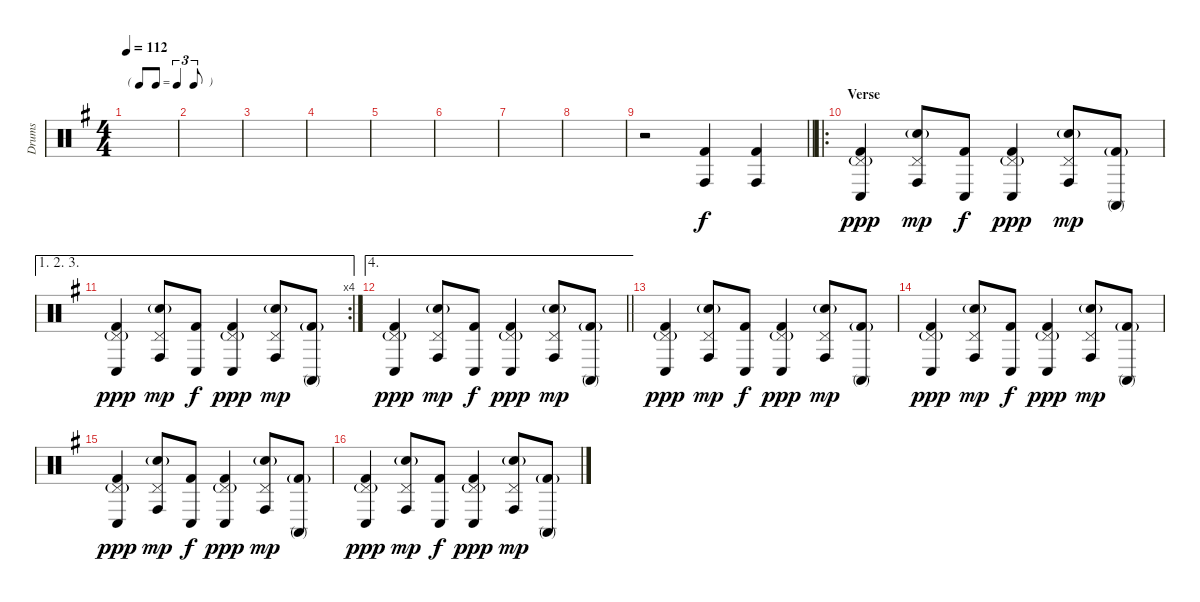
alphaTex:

\track ("Drums" "Drums") {instrument percussion}
\staff {score}
\articulation defaults
\ts (4 4)
\tf triplet8th
\tempo 112
\clef neutral
\ks g
|
|
|
|
|
|
|
|
\barLineRight lightlight
r.2 ("Conga high (hit)" "Kick (hit) 2").4 ("Conga high (hit)" "Kick (hit) 2").4 |
\ro
\section ("" "Verse")
("Pedal Hi-Hat (hit)"{g} "Conga low (hit)" "Kick (hit) 2").4{dy ppp} ("Pedal Hi-Hat (hit)" "Hand Clap (hit)"{g} "Conga high (hit)").8{dy mp} ("Conga low (hit)" "Kick (hit) 2").8{dy f} ("Pedal Hi-Hat (hit)"{g} "Conga low (hit)" "Kick (hit) 2").4{dy ppp} ("Pedal Hi-Hat (hit)" "Hand Clap (hit)"{g} "Conga high (hit)").8{dy mp} ("Conga high (mute)" "Kick (hit) 2"{g}).8 |
\ae (1 2 3)
\rc 4
("Pedal Hi-Hat (hit)"{g} "Conga low (hit)" "Kick (hit) 2").4{dy ppp} ("Pedal Hi-Hat (hit)" "Hand Clap (hit)"{g} "Conga high (hit)").8{dy mp} ("Conga low (hit)" "Kick (hit) 2").8{dy f} ("Pedal Hi-Hat (hit)"{g} "Conga low (hit)" "Kick (hit) 2").4{dy ppp} ("Pedal Hi-Hat (hit)" "Hand Clap (hit)"{g} "Conga high (hit)").8{dy mp} ("Conga high (mute)" "Kick (hit) 2"{g}).8 |
\ae 4
\barLineRight lightlight
("Pedal Hi-Hat (hit)"{g} "Conga low (hit)" "Kick (hit) 2").4{dy ppp} ("Pedal Hi-Hat (hit)" "Hand Clap (hit)"{g} "Conga high (hit)").8{dy mp} ("Conga low (hit)" "Kick (hit) 2").8{dy f} ("Pedal Hi-Hat (hit)"{g} "Conga low (hit)" "Kick (hit) 2").4{dy ppp} ("Pedal Hi-Hat (hit)" "Hand Clap (hit)"{g} "Conga high (hit)").8{dy mp} ("Conga high (mute)" "Kick (hit) 2"{g}).8 |
("Pedal Hi-Hat (hit)"{g} "Conga low (hit)" "Kick (hit) 2").4{dy ppp} ("Pedal Hi-Hat (hit)" "Hand Clap (hit)"{g} "Conga high (hit)").8{dy mp} ("Conga low (hit)" "Kick (hit) 2").8{dy f} ("Pedal Hi-Hat (hit)"{g} "Conga low (hit)" "Kick (hit) 2").4{dy ppp} ("Pedal Hi-Hat (hit)" "Hand Clap (hit)"{g} "Conga high (hit)").8{dy mp} ("Conga high (mute)" "Kick (hit) 2"{g}).8 |
("Pedal Hi-Hat (hit)"{g} "Conga low (hit)" "Kick (hit) 2").4{dy ppp} ("Pedal Hi-Hat (hit)" "Hand Clap (hit)"{g} "Conga high (hit)").8{dy mp} ("Conga low (hit)" "Kick (hit) 2").8{dy f} ("Pedal Hi-Hat (hit)"{g} "Conga low (hit)" "Kick (hit) 2").4{dy ppp} ("Pedal Hi-Hat (hit)" "Hand Clap (hit)"{g} "Conga high (hit)").8{dy mp} ("Conga high (mute)" "Kick (hit) 2"{g}).8 |
("Pedal Hi-Hat (hit)"{g} "Conga low (hit)" "Kick (hit) 2").4{dy ppp} ("Pedal Hi-Hat (hit)" "Hand Clap (hit)"{g} "Conga high (hit)").8{dy mp} ("Conga low (hit)" "Kick (hit) 2").8{dy f} ("Pedal Hi-Hat (hit)"{g} "Conga low (hit)" "Kick (hit) 2").4{dy ppp} ("Pedal Hi-Hat (hit)" "Hand Clap (hit)"{g} "Conga high (hit)").8{dy mp} ("Conga high (mute)" "Kick (hit) 2"{g}).8 |
("Pedal Hi-Hat (hit)"{g} "Conga low (hit)" "Kick (hit) 2").4{dy ppp} ("Pedal Hi-Hat (hit)" "Hand Clap (hit)"{g} "Conga high (hit)").8{dy mp} ("Conga low (hit)" "Kick (hit) 2").8{dy f} ("Pedal Hi-Hat (hit)"{g} "Conga low (hit)" "Kick (hit) 2").4{dy ppp} ("Pedal Hi-Hat (hit)" "Hand Clap (hit)"{g} "Conga high (hit)").8{dy mp} ("Conga high (mute)" "Kick (hit) 2"{g}).8
